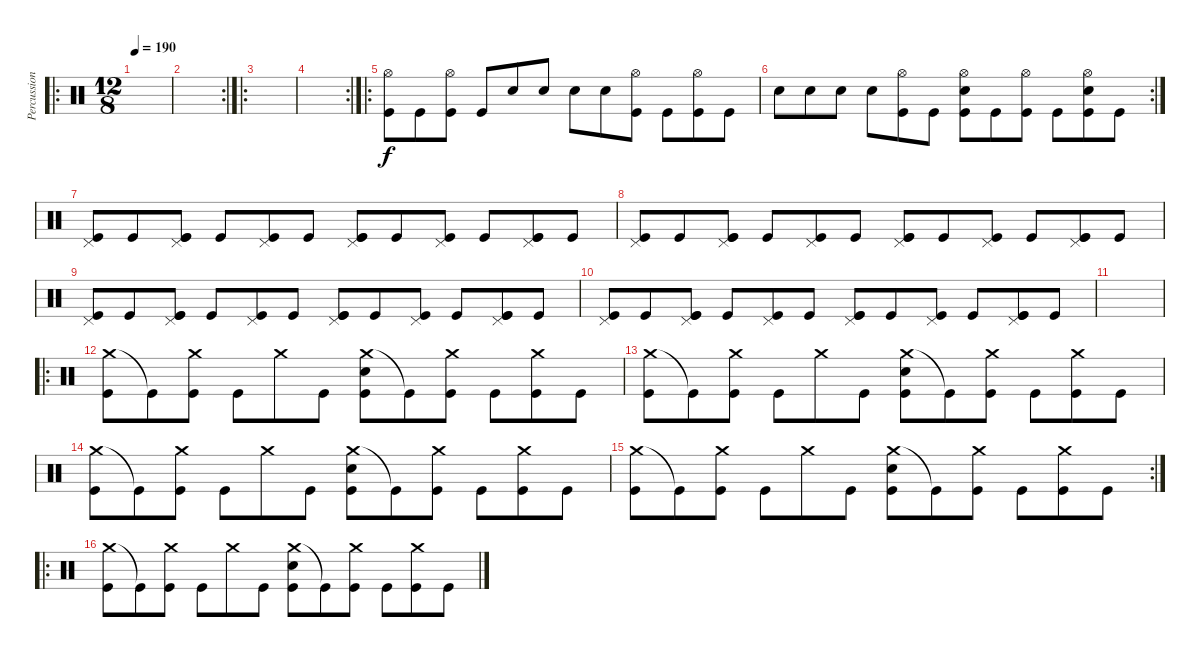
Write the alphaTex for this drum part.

\track ("Percussion" "Percussion") {instrument percussion}
\staff {score}
\articulation defaults
\ro
\ts (12 8)
\tempo 190
\clef neutral
\ks c
|
\rc 2
|
\ro
|
\rc 2
|
\ro
("Hi-Hat (open)" "Kick (hit)").8 "Kick (hit)".8 ("Hi-Hat (open)" "Kick (hit)").8 "Kick (hit)".8 "Snare (hit) 2".8 "Snare (hit) 2".8 "Snare (hit) 2".8 "Snare (hit) 2".8 ("Hi-Hat (open)" "Kick (hit)").8 "Kick (hit)".8 ("Hi-Hat (open)" "Kick (hit)").8 "Kick (hit)".8 |
\rc 2 "Snare (hit) 2".8 "Snare (hit) 2".8 "Snare (hit) 2".8 "Snare (hit) 2".8
("Hi-Hat (open)" "Kick (hit)").8 "Kick (hit)".8 ("Hi-Hat (open)" "Snare (hit) 2" "Kick (hit)").8 "Kick (hit)".8 ("Hi-Hat (open)" "Kick (hit)").8 "Kick (hit)".8 ("Hi-Hat (open)" "Snare (hit) 2" "Kick (hit)").8 "Kick (hit)".8 |
("Pedal Hi-Hat (hit)" "Kick (hit)").8 "Kick (hit)".8 ("Pedal Hi-Hat (hit)" "Kick (hit)" "Kick (hit)").8 "Kick (hit)".8 ("Pedal Hi-Hat (hit)" "Kick (hit)").8 "Kick (hit)".8 ("Pedal Hi-Hat (hit)" "Kick (hit)" "Kick (hit)").8 "Kick (hit)".8 ("Pedal Hi-Hat (hit)" "Kick (hit)").8 "Kick (hit)".8 ("Pedal Hi-Hat (hit)" "Kick (hit)" "Kick (hit)").8 "Kick (hit)".8 |
("Pedal Hi-Hat (hit)" "Kick (hit)").8 "Kick (hit)".8 ("Pedal Hi-Hat (hit)" "Kick (hit)" "Kick (hit)").8 "Kick (hit)".8 ("Pedal Hi-Hat (hit)" "Kick (hit)").8 "Kick (hit)".8 ("Pedal Hi-Hat (hit)" "Kick (hit)" "Kick (hit)").8 "Kick (hit)".8 ("Pedal Hi-Hat (hit)" "Kick (hit)").8 "Kick (hit)".8 ("Pedal Hi-Hat (hit)" "Kick (hit)" "Kick (hit)").8 "Kick (hit)".8 |
("Pedal Hi-Hat (hit)" "Kick (hit)").8 "Kick (hit)".8 ("Pedal Hi-Hat (hit)" "Kick (hit)" "Kick (hit)").8 "Kick (hit)".8 ("Pedal Hi-Hat (hit)" "Kick (hit)").8 "Kick (hit)".8 ("Pedal Hi-Hat (hit)" "Kick (hit)" "Kick (hit)").8 "Kick (hit)".8 ("Pedal Hi-Hat (hit)" "Kick (hit)").8 "Kick (hit)".8 ("Pedal Hi-Hat (hit)" "Kick (hit)" "Kick (hit)").8 "Kick (hit)".8 |
("Pedal Hi-Hat (hit)" "Kick (hit)").8 "Kick (hit)".8 ("Pedal Hi-Hat (hit)" "Kick (hit)" "Kick (hit)").8 "Kick (hit)".8 ("Pedal Hi-Hat (hit)" "Kick (hit)").8 "Kick (hit)".8 ("Pedal Hi-Hat (hit)" "Kick (hit)" "Kick (hit)").8 "Kick (hit)".8 ("Pedal Hi-Hat (hit)" "Kick (hit)").8 "Kick (hit)".8 ("Pedal Hi-Hat (hit)" "Kick (hit)" "Kick (hit)").8 "Kick (hit)".8 |
|
\ro
("Crash medium (hit)" "Kick (hit)").8 "Kick (hit)"{t}.8 ("Crash medium (hit)" "Kick (hit)").8 "Kick (hit)".8 "Crash medium (hit)".8 "Kick (hit)".8 ("Crash medium (hit)" "Snare (hit) 2" "Kick (hit)").8 "Kick (hit)"{t}.8 ("Crash medium (hit)" "Kick (hit)").8 "Kick (hit)".8 ("Crash medium (hit)" "Kick (hit)").8 "Kick (hit)".8 |
("Crash medium (hit)" "Kick (hit)").8 "Kick (hit)"{t}.8 ("Crash medium (hit)" "Kick (hit)").8 "Kick (hit)".8 "Crash medium (hit)".8 "Kick (hit)".8 ("Crash medium (hit)" "Snare (hit) 2" "Kick (hit)").8 "Kick (hit)"{t}.8 ("Crash medium (hit)" "Kick (hit)").8 "Kick (hit)".8 ("Crash medium (hit)" "Kick (hit)").8 "Kick (hit)".8 |
("Crash medium (hit)" "Kick (hit)").8 "Kick (hit)"{t}.8 ("Crash medium (hit)" "Kick (hit)").8 "Kick (hit)".8 "Crash medium (hit)".8 "Kick (hit)".8 ("Crash medium (hit)" "Snare (hit) 2" "Kick (hit)").8 "Kick (hit)"{t}.8 ("Crash medium (hit)" "Kick (hit)").8 "Kick (hit)".8 ("Crash medium (hit)" "Kick (hit)").8 "Kick (hit)".8 |
\rc 2
("Crash medium (hit)" "Kick (hit)").8 "Kick (hit)"{t}.8 ("Crash medium (hit)" "Kick (hit)").8 "Kick (hit)".8 "Crash medium (hit)".8 "Kick (hit)".8 ("Crash medium (hit)" "Snare (hit) 2" "Kick (hit)").8 "Kick (hit)"{t}.8 ("Crash medium (hit)" "Kick (hit)").8 "Kick (hit)".8 ("Crash medium (hit)" "Kick (hit)").8 "Kick (hit)".8 |
\ro
("Crash medium (hit)" "Kick (hit)").8 "Kick (hit)"{t}.8 ("Crash medium (hit)" "Kick (hit)").8 "Kick (hit)".8 "Crash medium (hit)".8 "Kick (hit)".8 ("Crash medium (hit)" "Snare (hit) 2" "Kick (hit)").8 "Kick (hit)"{t}.8 ("Crash medium (hit)" "Kick (hit)").8 "Kick (hit)".8 ("Crash medium (hit)" "Kick (hit)").8 "Kick (hit)".8
